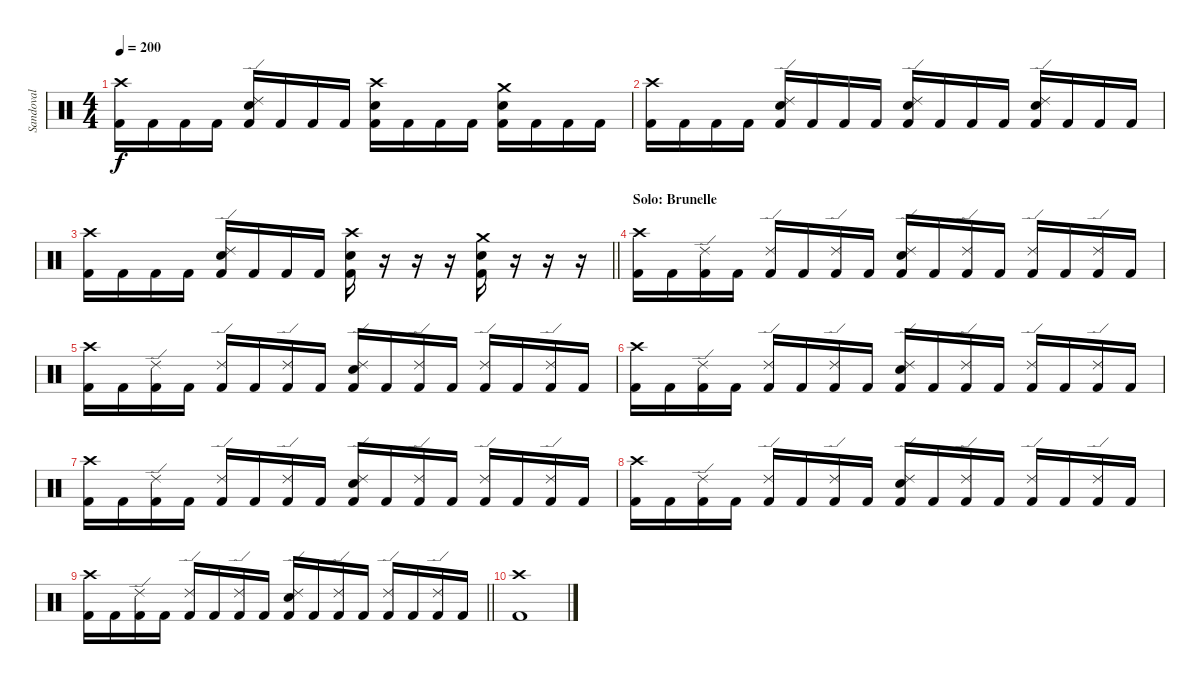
\track ("Sandoval" "Sandoval") {instrument percussion}
\staff {score}
\articulation defaults
\ts (4 4)
\tempo 200
\clef neutral
\ks c
("Crash high (hit)" "Kick (hit) 2").16{dy f} "Kick (hit) 2".16 "Kick (hit) 2".16 "Kick (hit) 2".16 ("Ride (edge) 2" "Electric Snare (hit)" "Kick (hit) 2").16 "Kick (hit) 2".16 "Kick (hit) 2".16 "Kick (hit) 2".16 ("Crash high (hit)" "Electric Snare (hit)" "Kick (hit) 2").16 "Kick (hit) 2".16 "Kick (hit) 2".16 "Kick (hit) 2".16 ("Crash medium (hit)" "Electric Snare (hit)" "Kick (hit) 2").16 "Kick (hit) 2".16 "Kick (hit) 2".16 "Kick (hit) 2".16 |
("Crash high (hit)" "Kick (hit) 2").16 "Kick (hit) 2".16 "Kick (hit) 2".16 "Kick (hit) 2".16 ("Ride (edge) 2" "Electric Snare (hit)" "Kick (hit) 2").16 "Kick (hit) 2".16 "Kick (hit) 2".16 "Kick (hit) 2".16 ("Ride (edge) 2" "Electric Snare (hit)" "Kick (hit) 2").16 "Kick (hit) 2".16 "Kick (hit) 2".16 "Kick (hit) 2".16 ("Ride (edge) 2" "Electric Snare (hit)" "Kick (hit) 2").16 "Kick (hit) 2".16 "Kick (hit) 2".16 "Kick (hit) 2".16 |
\barLineRight lightlight
("Crash high (hit)" "Kick (hit) 2").16 "Kick (hit) 2".16 "Kick (hit) 2".16 "Kick (hit) 2".16 ("Ride (edge) 2" "Electric Snare (hit)" "Kick (hit) 2").16 "Kick (hit) 2".16 "Kick (hit) 2".16 "Kick (hit) 2".16 ("Crash high (hit)" "Electric Snare (hit)" "Kick (hit) 2").16 r.16 r.16 r.16 ("Crash medium (hit)" "Electric Snare (hit)" "Kick (hit) 2").16 r.16 r.16 r.16 |
\section ("" "Solo: Brunelle")
("Crash high (hit)" "Kick (hit) 2").16 "Kick (hit) 2".16 ("Ride (edge) 2" "Kick (hit) 2").16 "Kick (hit) 2".16 ("Ride (edge) 2" "Kick (hit) 2").16 "Kick (hit) 2".16 ("Ride (edge) 2" "Kick (hit) 2").16 "Kick (hit) 2".16 ("Ride (edge) 2" "Electric Snare (hit)" "Kick (hit) 2").16 "Kick (hit) 2".16 ("Ride (edge) 2" "Kick (hit) 2").16 "Kick (hit) 2".16 ("Ride (edge) 2" "Kick (hit) 2").16 "Kick (hit) 2".16 ("Ride (edge) 2" "Kick (hit) 2").16 "Kick (hit) 2".16 |
("Crash high (hit)" "Kick (hit) 2").16 "Kick (hit) 2".16 ("Ride (edge) 2" "Kick (hit) 2").16 "Kick (hit) 2".16 ("Ride (edge) 2" "Kick (hit) 2").16 "Kick (hit) 2".16 ("Ride (edge) 2" "Kick (hit) 2").16 "Kick (hit) 2".16 ("Ride (edge) 2" "Electric Snare (hit)" "Kick (hit) 2").16 "Kick (hit) 2".16 ("Ride (edge) 2" "Kick (hit) 2").16 "Kick (hit) 2".16 ("Ride (edge) 2" "Kick (hit) 2").16 "Kick (hit) 2".16 ("Ride (edge) 2" "Kick (hit) 2").16 "Kick (hit) 2".16 |
("Crash high (hit)" "Kick (hit) 2").16 "Kick (hit) 2".16 ("Ride (edge) 2" "Kick (hit) 2").16 "Kick (hit) 2".16 ("Ride (edge) 2" "Kick (hit) 2").16 "Kick (hit) 2".16 ("Ride (edge) 2" "Kick (hit) 2").16 "Kick (hit) 2".16 ("Ride (edge) 2" "Electric Snare (hit)" "Kick (hit) 2").16 "Kick (hit) 2".16 ("Ride (edge) 2" "Kick (hit) 2").16 "Kick (hit) 2".16 ("Ride (edge) 2" "Kick (hit) 2").16 "Kick (hit) 2".16 ("Ride (edge) 2" "Kick (hit) 2").16 "Kick (hit) 2".16 |
("Crash high (hit)" "Kick (hit) 2").16 "Kick (hit) 2".16 ("Ride (edge) 2" "Kick (hit) 2").16 "Kick (hit) 2".16 ("Ride (edge) 2" "Kick (hit) 2").16 "Kick (hit) 2".16 ("Ride (edge) 2" "Kick (hit) 2").16 "Kick (hit) 2".16 ("Ride (edge) 2" "Electric Snare (hit)" "Kick (hit) 2").16 "Kick (hit) 2".16 ("Ride (edge) 2" "Kick (hit) 2").16 "Kick (hit) 2".16 ("Ride (edge) 2" "Kick (hit) 2").16 "Kick (hit) 2".16 ("Ride (edge) 2" "Kick (hit) 2").16 "Kick (hit) 2".16 |
("Crash high (hit)" "Kick (hit) 2").16 "Kick (hit) 2".16 ("Ride (edge) 2" "Kick (hit) 2").16 "Kick (hit) 2".16 ("Ride (edge) 2" "Kick (hit) 2").16 "Kick (hit) 2".16 ("Ride (edge) 2" "Kick (hit) 2").16 "Kick (hit) 2".16 ("Ride (edge) 2" "Electric Snare (hit)" "Kick (hit) 2").16 "Kick (hit) 2".16 ("Ride (edge) 2" "Kick (hit) 2").16 "Kick (hit) 2".16 ("Ride (edge) 2" "Kick (hit) 2").16 "Kick (hit) 2".16 ("Ride (edge) 2" "Kick (hit) 2").16 "Kick (hit) 2".16 |
\barLineRight lightlight
("Crash high (hit)" "Kick (hit) 2").16 "Kick (hit) 2".16 ("Ride (edge) 2" "Kick (hit) 2").16 "Kick (hit) 2".16 ("Ride (edge) 2" "Kick (hit) 2").16 "Kick (hit) 2".16 ("Ride (edge) 2" "Kick (hit) 2").16 "Kick (hit) 2".16 ("Ride (edge) 2" "Electric Snare (hit)" "Kick (hit) 2").16 "Kick (hit) 2".16 ("Ride (edge) 2" "Kick (hit) 2").16 "Kick (hit) 2".16 ("Ride (edge) 2" "Kick (hit) 2").16 "Kick (hit) 2".16 ("Ride (edge) 2" "Kick (hit) 2").16 "Kick (hit) 2".16 |
("Crash high (hit)" "Kick (hit) 2").1
